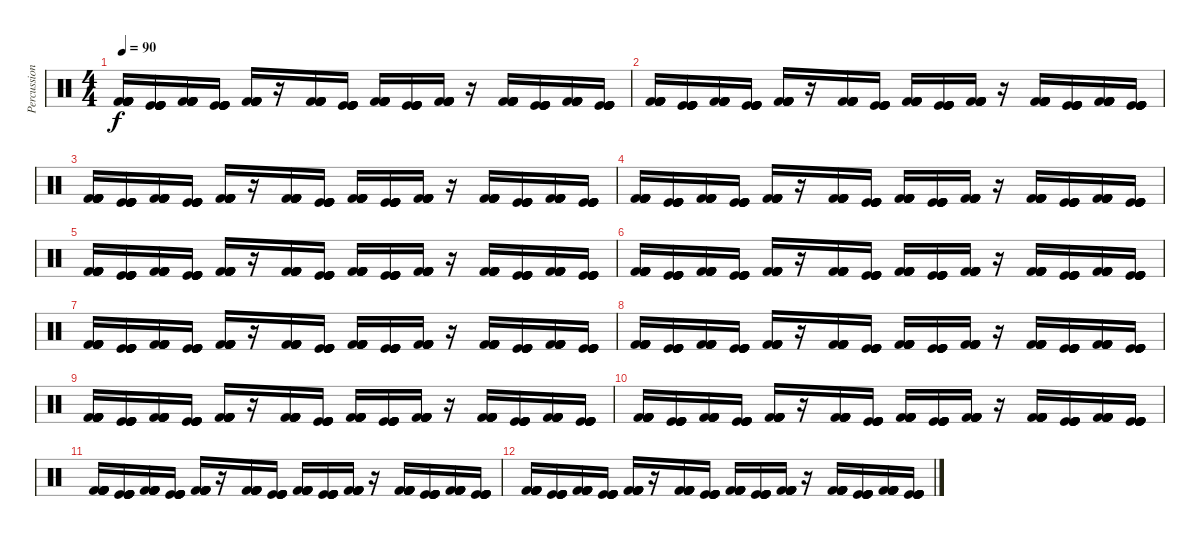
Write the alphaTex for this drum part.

\track ("Percussion 6" "Percussion") {instrument percussion}
\staff {score}
\articulation defaults
\ts (4 4)
\tempo 90
\clef neutral
\ks c
("Kick (hit) 2" "Kick (hit) 2" "Kick (hit) 2" "Kick (hit) 2" "Kick (hit) 2" "Kick (hit) 2").16{dy f} ("Kick (hit)" "Kick (hit)" "Kick (hit)" "Kick (hit)" "Kick (hit)" "Kick (hit)").16 ("Kick (hit) 2" "Kick (hit) 2" "Kick (hit) 2" "Kick (hit) 2" "Kick (hit) 2" "Kick (hit) 2").16 ("Kick (hit)" "Kick (hit)" "Kick (hit)" "Kick (hit)" "Kick (hit)" "Kick (hit)").16 ("Kick (hit) 2" "Kick (hit) 2" "Kick (hit) 2" "Kick (hit) 2" "Kick (hit) 2" "Kick (hit) 2").16 r.16 ("Kick (hit) 2" "Kick (hit) 2" "Kick (hit) 2" "Kick (hit) 2" "Kick (hit) 2" "Kick (hit) 2").16 ("Kick (hit)" "Kick (hit)" "Kick (hit)" "Kick (hit)" "Kick (hit)" "Kick (hit)").16 ("Kick (hit) 2" "Kick (hit) 2" "Kick (hit) 2" "Kick (hit) 2" "Kick (hit) 2" "Kick (hit) 2").16 ("Kick (hit)" "Kick (hit)" "Kick (hit)" "Kick (hit)" "Kick (hit)" "Kick (hit)").16 ("Kick (hit) 2" "Kick (hit) 2" "Kick (hit) 2" "Kick (hit) 2" "Kick (hit) 2" "Kick (hit) 2").16 r.16 ("Kick (hit) 2" "Kick (hit) 2" "Kick (hit) 2" "Kick (hit) 2" "Kick (hit) 2" "Kick (hit) 2").16 ("Kick (hit)" "Kick (hit)" "Kick (hit)" "Kick (hit)" "Kick (hit)" "Kick (hit)").16 ("Kick (hit) 2" "Kick (hit) 2" "Kick (hit) 2" "Kick (hit) 2" "Kick (hit) 2" "Kick (hit) 2").16 ("Kick (hit)" "Kick (hit)" "Kick (hit)" "Kick (hit)" "Kick (hit)" "Kick (hit)").16 |
("Kick (hit) 2" "Kick (hit) 2" "Kick (hit) 2" "Kick (hit) 2" "Kick (hit) 2" "Kick (hit) 2").16 ("Kick (hit)" "Kick (hit)" "Kick (hit)" "Kick (hit)" "Kick (hit)" "Kick (hit)").16 ("Kick (hit) 2" "Kick (hit) 2" "Kick (hit) 2" "Kick (hit) 2" "Kick (hit) 2" "Kick (hit) 2").16 ("Kick (hit)" "Kick (hit)" "Kick (hit)" "Kick (hit)" "Kick (hit)" "Kick (hit)").16 ("Kick (hit) 2" "Kick (hit) 2" "Kick (hit) 2" "Kick (hit) 2" "Kick (hit) 2" "Kick (hit) 2").16 r.16 ("Kick (hit) 2" "Kick (hit) 2" "Kick (hit) 2" "Kick (hit) 2" "Kick (hit) 2" "Kick (hit) 2").16 ("Kick (hit)" "Kick (hit)" "Kick (hit)" "Kick (hit)" "Kick (hit)" "Kick (hit)").16 ("Kick (hit) 2" "Kick (hit) 2" "Kick (hit) 2" "Kick (hit) 2" "Kick (hit) 2" "Kick (hit) 2").16 ("Kick (hit)" "Kick (hit)" "Kick (hit)" "Kick (hit)" "Kick (hit)" "Kick (hit)").16 ("Kick (hit) 2" "Kick (hit) 2" "Kick (hit) 2" "Kick (hit) 2" "Kick (hit) 2" "Kick (hit) 2").16 r.16 ("Kick (hit) 2" "Kick (hit) 2" "Kick (hit) 2" "Kick (hit) 2" "Kick (hit) 2" "Kick (hit) 2").16 ("Kick (hit)" "Kick (hit)" "Kick (hit)" "Kick (hit)" "Kick (hit)" "Kick (hit)").16 ("Kick (hit) 2" "Kick (hit) 2" "Kick (hit) 2" "Kick (hit) 2" "Kick (hit) 2" "Kick (hit) 2").16 ("Kick (hit)" "Kick (hit)" "Kick (hit)" "Kick (hit)" "Kick (hit)" "Kick (hit)").16 |
("Kick (hit) 2" "Kick (hit) 2" "Kick (hit) 2" "Kick (hit) 2" "Kick (hit) 2" "Kick (hit) 2").16 ("Kick (hit)" "Kick (hit)" "Kick (hit)" "Kick (hit)" "Kick (hit)" "Kick (hit)").16 ("Kick (hit) 2" "Kick (hit) 2" "Kick (hit) 2" "Kick (hit) 2" "Kick (hit) 2" "Kick (hit) 2").16 ("Kick (hit)" "Kick (hit)" "Kick (hit)" "Kick (hit)" "Kick (hit)" "Kick (hit)").16 ("Kick (hit) 2" "Kick (hit) 2" "Kick (hit) 2" "Kick (hit) 2" "Kick (hit) 2" "Kick (hit) 2").16 r.16 ("Kick (hit) 2" "Kick (hit) 2" "Kick (hit) 2" "Kick (hit) 2" "Kick (hit) 2" "Kick (hit) 2").16 ("Kick (hit)" "Kick (hit)" "Kick (hit)" "Kick (hit)" "Kick (hit)" "Kick (hit)").16 ("Kick (hit) 2" "Kick (hit) 2" "Kick (hit) 2" "Kick (hit) 2" "Kick (hit) 2" "Kick (hit) 2").16 ("Kick (hit)" "Kick (hit)" "Kick (hit)" "Kick (hit)" "Kick (hit)" "Kick (hit)").16 ("Kick (hit) 2" "Kick (hit) 2" "Kick (hit) 2" "Kick (hit) 2" "Kick (hit) 2" "Kick (hit) 2").16 r.16 ("Kick (hit) 2" "Kick (hit) 2" "Kick (hit) 2" "Kick (hit) 2" "Kick (hit) 2" "Kick (hit) 2").16 ("Kick (hit)" "Kick (hit)" "Kick (hit)" "Kick (hit)" "Kick (hit)" "Kick (hit)").16 ("Kick (hit) 2" "Kick (hit) 2" "Kick (hit) 2" "Kick (hit) 2" "Kick (hit) 2" "Kick (hit) 2").16 ("Kick (hit)" "Kick (hit)" "Kick (hit)" "Kick (hit)" "Kick (hit)" "Kick (hit)").16 |
("Kick (hit) 2" "Kick (hit) 2" "Kick (hit) 2" "Kick (hit) 2" "Kick (hit) 2" "Kick (hit) 2").16 ("Kick (hit)" "Kick (hit)" "Kick (hit)" "Kick (hit)" "Kick (hit)" "Kick (hit)").16 ("Kick (hit) 2" "Kick (hit) 2" "Kick (hit) 2" "Kick (hit) 2" "Kick (hit) 2" "Kick (hit) 2").16 ("Kick (hit)" "Kick (hit)" "Kick (hit)" "Kick (hit)" "Kick (hit)" "Kick (hit)").16 ("Kick (hit) 2" "Kick (hit) 2" "Kick (hit) 2" "Kick (hit) 2" "Kick (hit) 2" "Kick (hit) 2").16 r.16 ("Kick (hit) 2" "Kick (hit) 2" "Kick (hit) 2" "Kick (hit) 2" "Kick (hit) 2" "Kick (hit) 2").16 ("Kick (hit)" "Kick (hit)" "Kick (hit)" "Kick (hit)" "Kick (hit)" "Kick (hit)").16 ("Kick (hit) 2" "Kick (hit) 2" "Kick (hit) 2" "Kick (hit) 2" "Kick (hit) 2" "Kick (hit) 2").16 ("Kick (hit)" "Kick (hit)" "Kick (hit)" "Kick (hit)" "Kick (hit)" "Kick (hit)").16 ("Kick (hit) 2" "Kick (hit) 2" "Kick (hit) 2" "Kick (hit) 2" "Kick (hit) 2" "Kick (hit) 2").16 r.16 ("Kick (hit) 2" "Kick (hit) 2" "Kick (hit) 2" "Kick (hit) 2" "Kick (hit) 2" "Kick (hit) 2").16 ("Kick (hit)" "Kick (hit)" "Kick (hit)" "Kick (hit)" "Kick (hit)" "Kick (hit)").16 ("Kick (hit) 2" "Kick (hit) 2" "Kick (hit) 2" "Kick (hit) 2" "Kick (hit) 2" "Kick (hit) 2").16 ("Kick (hit)" "Kick (hit)" "Kick (hit)" "Kick (hit)" "Kick (hit)" "Kick (hit)").16 |
("Kick (hit) 2" "Kick (hit) 2" "Kick (hit) 2" "Kick (hit) 2" "Kick (hit) 2" "Kick (hit) 2").16 ("Kick (hit)" "Kick (hit)" "Kick (hit)" "Kick (hit)" "Kick (hit)" "Kick (hit)").16 ("Kick (hit) 2" "Kick (hit) 2" "Kick (hit) 2" "Kick (hit) 2" "Kick (hit) 2" "Kick (hit) 2").16 ("Kick (hit)" "Kick (hit)" "Kick (hit)" "Kick (hit)" "Kick (hit)" "Kick (hit)").16 ("Kick (hit) 2" "Kick (hit) 2" "Kick (hit) 2" "Kick (hit) 2" "Kick (hit) 2" "Kick (hit) 2").16 r.16 ("Kick (hit) 2" "Kick (hit) 2" "Kick (hit) 2" "Kick (hit) 2" "Kick (hit) 2" "Kick (hit) 2").16 ("Kick (hit)" "Kick (hit)" "Kick (hit)" "Kick (hit)" "Kick (hit)" "Kick (hit)").16 ("Kick (hit) 2" "Kick (hit) 2" "Kick (hit) 2" "Kick (hit) 2" "Kick (hit) 2" "Kick (hit) 2").16 ("Kick (hit)" "Kick (hit)" "Kick (hit)" "Kick (hit)" "Kick (hit)" "Kick (hit)").16 ("Kick (hit) 2" "Kick (hit) 2" "Kick (hit) 2" "Kick (hit) 2" "Kick (hit) 2" "Kick (hit) 2").16 r.16 ("Kick (hit) 2" "Kick (hit) 2" "Kick (hit) 2" "Kick (hit) 2" "Kick (hit) 2" "Kick (hit) 2").16 ("Kick (hit)" "Kick (hit)" "Kick (hit)" "Kick (hit)" "Kick (hit)" "Kick (hit)").16 ("Kick (hit) 2" "Kick (hit) 2" "Kick (hit) 2" "Kick (hit) 2" "Kick (hit) 2" "Kick (hit) 2").16 ("Kick (hit)" "Kick (hit)" "Kick (hit)" "Kick (hit)" "Kick (hit)" "Kick (hit)").16 |
("Kick (hit) 2" "Kick (hit) 2" "Kick (hit) 2" "Kick (hit) 2" "Kick (hit) 2" "Kick (hit) 2").16 ("Kick (hit)" "Kick (hit)" "Kick (hit)" "Kick (hit)" "Kick (hit)" "Kick (hit)").16 ("Kick (hit) 2" "Kick (hit) 2" "Kick (hit) 2" "Kick (hit) 2" "Kick (hit) 2" "Kick (hit) 2").16 ("Kick (hit)" "Kick (hit)" "Kick (hit)" "Kick (hit)" "Kick (hit)" "Kick (hit)").16 ("Kick (hit) 2" "Kick (hit) 2" "Kick (hit) 2" "Kick (hit) 2" "Kick (hit) 2" "Kick (hit) 2").16 r.16 ("Kick (hit) 2" "Kick (hit) 2" "Kick (hit) 2" "Kick (hit) 2" "Kick (hit) 2" "Kick (hit) 2").16 ("Kick (hit)" "Kick (hit)" "Kick (hit)" "Kick (hit)" "Kick (hit)" "Kick (hit)").16 ("Kick (hit) 2" "Kick (hit) 2" "Kick (hit) 2" "Kick (hit) 2" "Kick (hit) 2" "Kick (hit) 2").16 ("Kick (hit)" "Kick (hit)" "Kick (hit)" "Kick (hit)" "Kick (hit)" "Kick (hit)").16 ("Kick (hit) 2" "Kick (hit) 2" "Kick (hit) 2" "Kick (hit) 2" "Kick (hit) 2" "Kick (hit) 2").16 r.16 ("Kick (hit) 2" "Kick (hit) 2" "Kick (hit) 2" "Kick (hit) 2" "Kick (hit) 2" "Kick (hit) 2").16 ("Kick (hit)" "Kick (hit)" "Kick (hit)" "Kick (hit)" "Kick (hit)" "Kick (hit)").16 ("Kick (hit) 2" "Kick (hit) 2" "Kick (hit) 2" "Kick (hit) 2" "Kick (hit) 2" "Kick (hit) 2").16 ("Kick (hit)" "Kick (hit)" "Kick (hit)" "Kick (hit)" "Kick (hit)" "Kick (hit)").16 |
("Kick (hit) 2" "Kick (hit) 2" "Kick (hit) 2" "Kick (hit) 2" "Kick (hit) 2" "Kick (hit) 2").16 ("Kick (hit)" "Kick (hit)" "Kick (hit)" "Kick (hit)" "Kick (hit)" "Kick (hit)").16 ("Kick (hit) 2" "Kick (hit) 2" "Kick (hit) 2" "Kick (hit) 2" "Kick (hit) 2" "Kick (hit) 2").16 ("Kick (hit)" "Kick (hit)" "Kick (hit)" "Kick (hit)" "Kick (hit)" "Kick (hit)").16 ("Kick (hit) 2" "Kick (hit) 2" "Kick (hit) 2" "Kick (hit) 2" "Kick (hit) 2" "Kick (hit) 2").16 r.16 ("Kick (hit) 2" "Kick (hit) 2" "Kick (hit) 2" "Kick (hit) 2" "Kick (hit) 2" "Kick (hit) 2").16 ("Kick (hit)" "Kick (hit)" "Kick (hit)" "Kick (hit)" "Kick (hit)" "Kick (hit)").16 ("Kick (hit) 2" "Kick (hit) 2" "Kick (hit) 2" "Kick (hit) 2" "Kick (hit) 2" "Kick (hit) 2").16 ("Kick (hit)" "Kick (hit)" "Kick (hit)" "Kick (hit)" "Kick (hit)" "Kick (hit)").16 ("Kick (hit) 2" "Kick (hit) 2" "Kick (hit) 2" "Kick (hit) 2" "Kick (hit) 2" "Kick (hit) 2").16 r.16 ("Kick (hit) 2" "Kick (hit) 2" "Kick (hit) 2" "Kick (hit) 2" "Kick (hit) 2" "Kick (hit) 2").16 ("Kick (hit)" "Kick (hit)" "Kick (hit)" "Kick (hit)" "Kick (hit)" "Kick (hit)").16 ("Kick (hit) 2" "Kick (hit) 2" "Kick (hit) 2" "Kick (hit) 2" "Kick (hit) 2" "Kick (hit) 2").16 ("Kick (hit)" "Kick (hit)" "Kick (hit)" "Kick (hit)" "Kick (hit)" "Kick (hit)").16 |
("Kick (hit) 2" "Kick (hit) 2" "Kick (hit) 2" "Kick (hit) 2" "Kick (hit) 2" "Kick (hit) 2").16 ("Kick (hit)" "Kick (hit)" "Kick (hit)" "Kick (hit)" "Kick (hit)" "Kick (hit)").16 ("Kick (hit) 2" "Kick (hit) 2" "Kick (hit) 2" "Kick (hit) 2" "Kick (hit) 2" "Kick (hit) 2").16 ("Kick (hit)" "Kick (hit)" "Kick (hit)" "Kick (hit)" "Kick (hit)" "Kick (hit)").16 ("Kick (hit) 2" "Kick (hit) 2" "Kick (hit) 2" "Kick (hit) 2" "Kick (hit) 2" "Kick (hit) 2").16 r.16 ("Kick (hit) 2" "Kick (hit) 2" "Kick (hit) 2" "Kick (hit) 2" "Kick (hit) 2" "Kick (hit) 2").16 ("Kick (hit)" "Kick (hit)" "Kick (hit)" "Kick (hit)" "Kick (hit)" "Kick (hit)").16 ("Kick (hit) 2" "Kick (hit) 2" "Kick (hit) 2" "Kick (hit) 2" "Kick (hit) 2" "Kick (hit) 2").16 ("Kick (hit)" "Kick (hit)" "Kick (hit)" "Kick (hit)" "Kick (hit)" "Kick (hit)").16 ("Kick (hit) 2" "Kick (hit) 2" "Kick (hit) 2" "Kick (hit) 2" "Kick (hit) 2" "Kick (hit) 2").16 r.16 ("Kick (hit) 2" "Kick (hit) 2" "Kick (hit) 2" "Kick (hit) 2" "Kick (hit) 2" "Kick (hit) 2").16 ("Kick (hit)" "Kick (hit)" "Kick (hit)" "Kick (hit)" "Kick (hit)" "Kick (hit)").16 ("Kick (hit) 2" "Kick (hit) 2" "Kick (hit) 2" "Kick (hit) 2" "Kick (hit) 2" "Kick (hit) 2").16 ("Kick (hit)" "Kick (hit)" "Kick (hit)" "Kick (hit)" "Kick (hit)" "Kick (hit)").16 |
("Kick (hit) 2" "Kick (hit) 2" "Kick (hit) 2" "Kick (hit) 2" "Kick (hit) 2" "Kick (hit) 2").16 ("Kick (hit)" "Kick (hit)" "Kick (hit)" "Kick (hit)" "Kick (hit)" "Kick (hit)").16 ("Kick (hit) 2" "Kick (hit) 2" "Kick (hit) 2" "Kick (hit) 2" "Kick (hit) 2" "Kick (hit) 2").16 ("Kick (hit)" "Kick (hit)" "Kick (hit)" "Kick (hit)" "Kick (hit)" "Kick (hit)").16 ("Kick (hit) 2" "Kick (hit) 2" "Kick (hit) 2" "Kick (hit) 2" "Kick (hit) 2" "Kick (hit) 2").16 r.16 ("Kick (hit) 2" "Kick (hit) 2" "Kick (hit) 2" "Kick (hit) 2" "Kick (hit) 2" "Kick (hit) 2").16 ("Kick (hit)" "Kick (hit)" "Kick (hit)" "Kick (hit)" "Kick (hit)" "Kick (hit)").16 ("Kick (hit) 2" "Kick (hit) 2" "Kick (hit) 2" "Kick (hit) 2" "Kick (hit) 2" "Kick (hit) 2").16 ("Kick (hit)" "Kick (hit)" "Kick (hit)" "Kick (hit)" "Kick (hit)" "Kick (hit)").16 ("Kick (hit) 2" "Kick (hit) 2" "Kick (hit) 2" "Kick (hit) 2" "Kick (hit) 2" "Kick (hit) 2").16 r.16 ("Kick (hit) 2" "Kick (hit) 2" "Kick (hit) 2" "Kick (hit) 2" "Kick (hit) 2" "Kick (hit) 2").16 ("Kick (hit)" "Kick (hit)" "Kick (hit)" "Kick (hit)" "Kick (hit)" "Kick (hit)").16 ("Kick (hit) 2" "Kick (hit) 2" "Kick (hit) 2" "Kick (hit) 2" "Kick (hit) 2" "Kick (hit) 2").16 ("Kick (hit)" "Kick (hit)" "Kick (hit)" "Kick (hit)" "Kick (hit)" "Kick (hit)").16 |
("Kick (hit) 2" "Kick (hit) 2" "Kick (hit) 2" "Kick (hit) 2" "Kick (hit) 2" "Kick (hit) 2").16 ("Kick (hit)" "Kick (hit)" "Kick (hit)" "Kick (hit)" "Kick (hit)" "Kick (hit)").16 ("Kick (hit) 2" "Kick (hit) 2" "Kick (hit) 2" "Kick (hit) 2" "Kick (hit) 2" "Kick (hit) 2").16 ("Kick (hit)" "Kick (hit)" "Kick (hit)" "Kick (hit)" "Kick (hit)" "Kick (hit)").16 ("Kick (hit) 2" "Kick (hit) 2" "Kick (hit) 2" "Kick (hit) 2" "Kick (hit) 2" "Kick (hit) 2").16 r.16 ("Kick (hit) 2" "Kick (hit) 2" "Kick (hit) 2" "Kick (hit) 2" "Kick (hit) 2" "Kick (hit) 2").16 ("Kick (hit)" "Kick (hit)" "Kick (hit)" "Kick (hit)" "Kick (hit)" "Kick (hit)").16 ("Kick (hit) 2" "Kick (hit) 2" "Kick (hit) 2" "Kick (hit) 2" "Kick (hit) 2" "Kick (hit) 2").16 ("Kick (hit)" "Kick (hit)" "Kick (hit)" "Kick (hit)" "Kick (hit)" "Kick (hit)").16 ("Kick (hit) 2" "Kick (hit) 2" "Kick (hit) 2" "Kick (hit) 2" "Kick (hit) 2" "Kick (hit) 2").16 r.16 ("Kick (hit) 2" "Kick (hit) 2" "Kick (hit) 2" "Kick (hit) 2" "Kick (hit) 2" "Kick (hit) 2").16 ("Kick (hit)" "Kick (hit)" "Kick (hit)" "Kick (hit)" "Kick (hit)" "Kick (hit)").16 ("Kick (hit) 2" "Kick (hit) 2" "Kick (hit) 2" "Kick (hit) 2" "Kick (hit) 2" "Kick (hit) 2").16 ("Kick (hit)" "Kick (hit)" "Kick (hit)" "Kick (hit)" "Kick (hit)" "Kick (hit)").16 |
("Kick (hit) 2" "Kick (hit) 2" "Kick (hit) 2" "Kick (hit) 2" "Kick (hit) 2" "Kick (hit) 2").16 ("Kick (hit)" "Kick (hit)" "Kick (hit)" "Kick (hit)" "Kick (hit)" "Kick (hit)").16 ("Kick (hit) 2" "Kick (hit) 2" "Kick (hit) 2" "Kick (hit) 2" "Kick (hit) 2" "Kick (hit) 2").16 ("Kick (hit)" "Kick (hit)" "Kick (hit)" "Kick (hit)" "Kick (hit)" "Kick (hit)").16 ("Kick (hit) 2" "Kick (hit) 2" "Kick (hit) 2" "Kick (hit) 2" "Kick (hit) 2" "Kick (hit) 2").16 r.16 ("Kick (hit) 2" "Kick (hit) 2" "Kick (hit) 2" "Kick (hit) 2" "Kick (hit) 2" "Kick (hit) 2").16 ("Kick (hit)" "Kick (hit)" "Kick (hit)" "Kick (hit)" "Kick (hit)" "Kick (hit)").16 ("Kick (hit) 2" "Kick (hit) 2" "Kick (hit) 2" "Kick (hit) 2" "Kick (hit) 2" "Kick (hit) 2").16 ("Kick (hit)" "Kick (hit)" "Kick (hit)" "Kick (hit)" "Kick (hit)" "Kick (hit)").16 ("Kick (hit) 2" "Kick (hit) 2" "Kick (hit) 2" "Kick (hit) 2" "Kick (hit) 2" "Kick (hit) 2").16 r.16 ("Kick (hit) 2" "Kick (hit) 2" "Kick (hit) 2" "Kick (hit) 2" "Kick (hit) 2" "Kick (hit) 2").16 ("Kick (hit)" "Kick (hit)" "Kick (hit)" "Kick (hit)" "Kick (hit)" "Kick (hit)").16 ("Kick (hit) 2" "Kick (hit) 2" "Kick (hit) 2" "Kick (hit) 2" "Kick (hit) 2" "Kick (hit) 2").16 ("Kick (hit)" "Kick (hit)" "Kick (hit)" "Kick (hit)" "Kick (hit)" "Kick (hit)").16 |
("Kick (hit) 2" "Kick (hit) 2" "Kick (hit) 2" "Kick (hit) 2" "Kick (hit) 2" "Kick (hit) 2").16 ("Kick (hit)" "Kick (hit)" "Kick (hit)" "Kick (hit)" "Kick (hit)" "Kick (hit)").16 ("Kick (hit) 2" "Kick (hit) 2" "Kick (hit) 2" "Kick (hit) 2" "Kick (hit) 2" "Kick (hit) 2").16 ("Kick (hit)" "Kick (hit)" "Kick (hit)" "Kick (hit)" "Kick (hit)" "Kick (hit)").16 ("Kick (hit) 2" "Kick (hit) 2" "Kick (hit) 2" "Kick (hit) 2" "Kick (hit) 2" "Kick (hit) 2").16 r.16 ("Kick (hit) 2" "Kick (hit) 2" "Kick (hit) 2" "Kick (hit) 2" "Kick (hit) 2" "Kick (hit) 2").16 ("Kick (hit)" "Kick (hit)" "Kick (hit)" "Kick (hit)" "Kick (hit)" "Kick (hit)").16 ("Kick (hit) 2" "Kick (hit) 2" "Kick (hit) 2" "Kick (hit) 2" "Kick (hit) 2" "Kick (hit) 2").16 ("Kick (hit)" "Kick (hit)" "Kick (hit)" "Kick (hit)" "Kick (hit)" "Kick (hit)").16 ("Kick (hit) 2" "Kick (hit) 2" "Kick (hit) 2" "Kick (hit) 2" "Kick (hit) 2" "Kick (hit) 2").16 r.16 ("Kick (hit) 2" "Kick (hit) 2" "Kick (hit) 2" "Kick (hit) 2" "Kick (hit) 2" "Kick (hit) 2").16 ("Kick (hit)" "Kick (hit)" "Kick (hit)" "Kick (hit)" "Kick (hit)" "Kick (hit)").16 ("Kick (hit) 2" "Kick (hit) 2" "Kick (hit) 2" "Kick (hit) 2" "Kick (hit) 2" "Kick (hit) 2").16 ("Kick (hit)" "Kick (hit)" "Kick (hit)" "Kick (hit)" "Kick (hit)" "Kick (hit)").16
